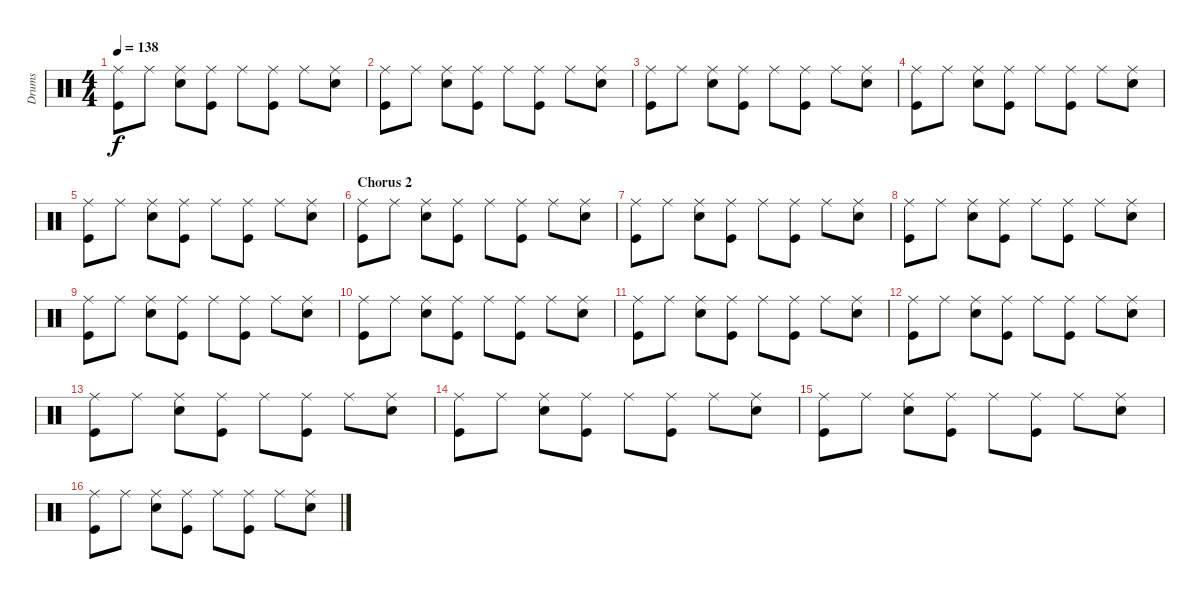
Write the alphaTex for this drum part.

\track ("Drums" "Drums") {instrument percussion}
\staff {score}
\articulation defaults
\ts (4 4)
\tempo 138
\clef neutral
\ks c
("Ride (middle)" "Kick (hit)").8{dy f} "Ride (middle)".8 ("Ride (middle)" "Snare (hit) 2").8 ("Ride (middle)" "Kick (hit)").8 "Ride (middle)".8 ("Ride (middle)" "Kick (hit)").8 "Ride (middle)".8 ("Ride (middle)" "Snare (hit) 2").8 |
("Ride (middle)" "Kick (hit)").8 "Ride (middle)".8 ("Ride (middle)" "Snare (hit) 2").8 ("Ride (middle)" "Kick (hit)").8 "Ride (middle)".8 ("Ride (middle)" "Kick (hit)").8 "Ride (middle)".8 ("Ride (middle)" "Snare (hit) 2").8 |
("Ride (middle)" "Kick (hit)").8 "Ride (middle)".8 ("Ride (middle)" "Snare (hit) 2").8 ("Ride (middle)" "Kick (hit)").8 "Ride (middle)".8 ("Ride (middle)" "Kick (hit)").8 "Ride (middle)".8 ("Ride (middle)" "Snare (hit) 2").8 |
("Ride (middle)" "Kick (hit)").8 "Ride (middle)".8 ("Ride (middle)" "Snare (hit) 2").8 ("Ride (middle)" "Kick (hit)").8 "Ride (middle)".8 ("Ride (middle)" "Kick (hit)").8 "Ride (middle)".8 ("Ride (middle)" "Snare (hit) 2").8 |
("Ride (middle)" "Kick (hit)").8 "Ride (middle)".8 ("Ride (middle)" "Snare (hit) 2").8 ("Ride (middle)" "Kick (hit)").8 "Ride (middle)".8 ("Ride (middle)" "Kick (hit)").8 "Ride (middle)".8 ("Ride (middle)" "Snare (hit) 2").8 |
\section ("" "Chorus 2")
("Ride (middle)" "Kick (hit)").8 "Ride (middle)".8 ("Ride (middle)" "Snare (hit) 2").8 ("Ride (middle)" "Kick (hit)").8 "Ride (middle)".8 ("Ride (middle)" "Kick (hit)").8 "Ride (middle)".8 ("Ride (middle)" "Snare (hit) 2").8 |
("Ride (middle)" "Kick (hit)").8 "Ride (middle)".8 ("Ride (middle)" "Snare (hit) 2").8 ("Ride (middle)" "Kick (hit)").8 "Ride (middle)".8 ("Ride (middle)" "Kick (hit)").8 "Ride (middle)".8 ("Ride (middle)" "Snare (hit) 2").8 |
("Ride (middle)" "Kick (hit)").8 "Ride (middle)".8 ("Ride (middle)" "Snare (hit) 2").8 ("Ride (middle)" "Kick (hit)").8 "Ride (middle)".8 ("Ride (middle)" "Kick (hit)").8 "Ride (middle)".8 ("Ride (middle)" "Snare (hit) 2").8 |
("Ride (middle)" "Kick (hit)").8 "Ride (middle)".8 ("Ride (middle)" "Snare (hit) 2").8 ("Ride (middle)" "Kick (hit)").8 "Ride (middle)".8 ("Ride (middle)" "Kick (hit)").8 "Ride (middle)".8 ("Ride (middle)" "Snare (hit) 2").8 |
("Ride (middle)" "Kick (hit)").8 "Ride (middle)".8 ("Ride (middle)" "Snare (hit) 2").8 ("Ride (middle)" "Kick (hit)").8 "Ride (middle)".8 ("Ride (middle)" "Kick (hit)").8 "Ride (middle)".8 ("Ride (middle)" "Snare (hit) 2").8 |
("Ride (middle)" "Kick (hit)").8 "Ride (middle)".8 ("Ride (middle)" "Snare (hit) 2").8 ("Ride (middle)" "Kick (hit)").8 "Ride (middle)".8 ("Ride (middle)" "Kick (hit)").8 "Ride (middle)".8 ("Ride (middle)" "Snare (hit) 2").8 |
("Ride (middle)" "Kick (hit)").8 "Ride (middle)".8 ("Ride (middle)" "Snare (hit) 2").8 ("Ride (middle)" "Kick (hit)").8 "Ride (middle)".8 ("Ride (middle)" "Kick (hit)").8 "Ride (middle)".8 ("Ride (middle)" "Snare (hit) 2").8 |
("Ride (middle)" "Kick (hit)").8 "Ride (middle)".8 ("Ride (middle)" "Snare (hit) 2").8 ("Ride (middle)" "Kick (hit)").8 "Ride (middle)".8 ("Ride (middle)" "Kick (hit)").8 "Ride (middle)".8 ("Ride (middle)" "Snare (hit) 2").8 |
("Ride (middle)" "Kick (hit)").8 "Ride (middle)".8 ("Ride (middle)" "Snare (hit) 2").8 ("Ride (middle)" "Kick (hit)").8 "Ride (middle)".8 ("Ride (middle)" "Kick (hit)").8 "Ride (middle)".8 ("Ride (middle)" "Snare (hit) 2").8 |
("Ride (middle)" "Kick (hit)").8 "Ride (middle)".8 ("Ride (middle)" "Snare (hit) 2").8 ("Ride (middle)" "Kick (hit)").8 "Ride (middle)".8 ("Ride (middle)" "Kick (hit)").8 "Ride (middle)".8 ("Ride (middle)" "Snare (hit) 2").8 |
("Ride (middle)" "Kick (hit)").8 "Ride (middle)".8 ("Ride (middle)" "Snare (hit) 2").8 ("Ride (middle)" "Kick (hit)").8 "Ride (middle)".8 ("Ride (middle)" "Kick (hit)").8 "Ride (middle)".8 ("Ride (middle)" "Snare (hit) 2").8
